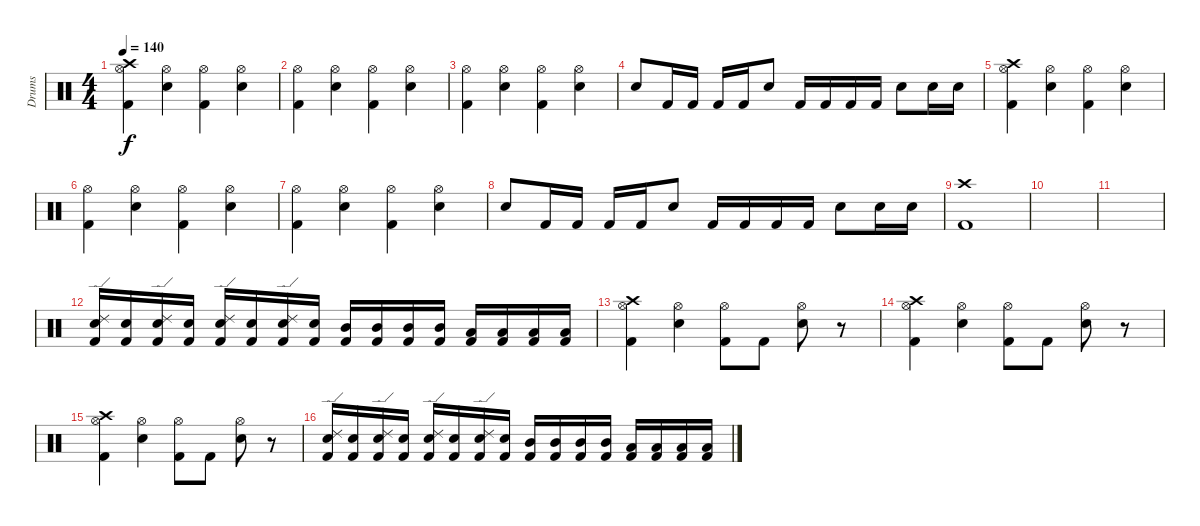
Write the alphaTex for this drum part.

\track ("Drums" "Drums") {instrument percussion}
\staff {score}
\articulation defaults
\ts (4 4)
\tempo 140
\clef neutral
\ks c
("Crash high (hit)" "Hi-Hat (open)" "Kick (hit) 2").4{dy f} ("Hi-Hat (open)" "Snare (hit) 2").4 ("Hi-Hat (open)" "Kick (hit) 2").4 ("Hi-Hat (open)" "Snare (hit) 2").4 |
("Hi-Hat (open)" "Kick (hit) 2").4 ("Hi-Hat (open)" "Snare (hit) 2").4 ("Hi-Hat (open)" "Kick (hit) 2").4 ("Hi-Hat (open)" "Snare (hit) 2").4 |
("Hi-Hat (open)" "Kick (hit) 2").4 ("Hi-Hat (open)" "Snare (hit) 2").4 ("Hi-Hat (open)" "Kick (hit) 2").4 ("Hi-Hat (open)" "Snare (hit) 2").4 |
"Snare (hit) 2".8 "Kick (hit) 2".16 "Kick (hit) 2".16 "Kick (hit) 2".16 "Kick (hit) 2".16 "Snare (hit) 2".8 "Kick (hit) 2".16 "Kick (hit) 2".16 "Kick (hit) 2".16 "Kick (hit) 2".16 "Snare (hit) 2".8 "Snare (hit) 2".16 "Snare (hit) 2".16 |
("Crash high (hit)" "Hi-Hat (open)" "Kick (hit) 2").4 ("Hi-Hat (open)" "Snare (hit) 2").4 ("Hi-Hat (open)" "Kick (hit) 2").4 ("Hi-Hat (open)" "Snare (hit) 2").4 |
("Hi-Hat (open)" "Kick (hit) 2").4 ("Hi-Hat (open)" "Snare (hit) 2").4 ("Hi-Hat (open)" "Kick (hit) 2").4 ("Hi-Hat (open)" "Snare (hit) 2").4 |
("Hi-Hat (open)" "Kick (hit) 2").4 ("Hi-Hat (open)" "Snare (hit) 2").4 ("Hi-Hat (open)" "Kick (hit) 2").4 ("Hi-Hat (open)" "Snare (hit) 2").4 |
"Snare (hit) 2".8 "Kick (hit) 2".16 "Kick (hit) 2".16 "Kick (hit) 2".16 "Kick (hit) 2".16 "Snare (hit) 2".8 "Kick (hit) 2".16 "Kick (hit) 2".16 "Kick (hit) 2".16 "Kick (hit) 2".16 "Snare (hit) 2".8 "Snare (hit) 2".16 "Snare (hit) 2".16 |
("Crash high (hit)" "Kick (hit) 2").1 |
|
|
("Ride (edge) 2" "Snare (hit) 2" "Kick (hit) 2").16 ("Snare (hit) 2" "Kick (hit) 2").16 ("Ride (edge) 2" "Snare (hit) 2" "Kick (hit) 2").16 ("Snare (hit) 2" "Kick (hit) 2").16 ("Ride (edge) 2" "Snare (hit) 2" "Kick (hit) 2").16 ("Snare (hit) 2" "Kick (hit) 2").16 ("Ride (edge) 2" "Snare (hit) 2" "Kick (hit) 2").16 ("Snare (hit) 2" "Kick (hit) 2").16 ("Mid Tom (hit)" "Kick (hit) 2").16 ("Mid Tom (hit)" "Kick (hit) 2").16 ("Mid Tom (hit)" "Kick (hit) 2").16 ("Mid Tom (hit)" "Kick (hit) 2").16 ("Low Tom (hit)" "Kick (hit) 2").16 ("Low Tom (hit)" "Kick (hit) 2").16 ("Low Tom (hit)" "Kick (hit) 2").16 ("Low Tom (hit)" "Kick (hit) 2").16 |
("Crash high (hit)" "Hi-Hat (open)" "Kick (hit) 2").4 ("Hi-Hat (open)" "Snare (hit) 2").4 ("Hi-Hat (open)" "Kick (hit) 2").8 "Kick (hit) 2".8 ("Hi-Hat (open)" "Snare (hit) 2").8 r.8 |
("Crash high (hit)" "Hi-Hat (open)" "Kick (hit) 2").4 ("Hi-Hat (open)" "Snare (hit) 2").4 ("Hi-Hat (open)" "Kick (hit) 2").8 "Kick (hit) 2".8 ("Hi-Hat (open)" "Snare (hit) 2").8 r.8 |
("Crash high (hit)" "Hi-Hat (open)" "Kick (hit) 2").4 ("Hi-Hat (open)" "Snare (hit) 2").4 ("Hi-Hat (open)" "Kick (hit) 2").8 "Kick (hit) 2".8 ("Hi-Hat (open)" "Snare (hit) 2").8 r.8 |
("Ride (edge) 2" "Snare (hit) 2" "Kick (hit) 2").16 ("Snare (hit) 2" "Kick (hit) 2").16 ("Ride (edge) 2" "Snare (hit) 2" "Kick (hit) 2").16 ("Snare (hit) 2" "Kick (hit) 2").16 ("Ride (edge) 2" "Snare (hit) 2" "Kick (hit) 2").16 ("Snare (hit) 2" "Kick (hit) 2").16 ("Ride (edge) 2" "Snare (hit) 2" "Kick (hit) 2").16 ("Snare (hit) 2" "Kick (hit) 2").16 ("Mid Tom (hit)" "Kick (hit) 2").16 ("Mid Tom (hit)" "Kick (hit) 2").16 ("Mid Tom (hit)" "Kick (hit) 2").16 ("Mid Tom (hit)" "Kick (hit) 2").16 ("Low Tom (hit)" "Kick (hit) 2").16 ("Low Tom (hit)" "Kick (hit) 2").16 ("Low Tom (hit)" "Kick (hit) 2").16 ("Low Tom (hit)" "Kick (hit) 2").16
